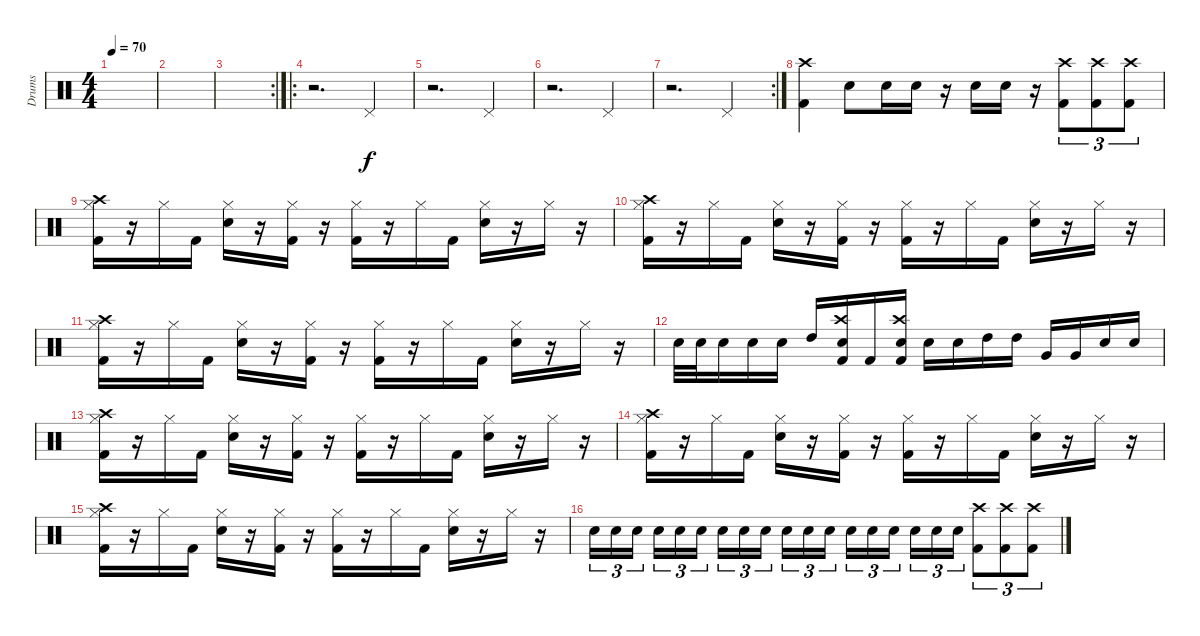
\track ("Drums" "Drums") {instrument percussion}
\staff {score}
\articulation defaults
\ts (4 4)
\tempo 70
\clef neutral
\ks c
|
|
\rc 2
|
\ro
r.2{d} "Pedal Hi-Hat (hit)".4 |
r.2{d} "Pedal Hi-Hat (hit)".4 |
r.2{d} "Pedal Hi-Hat (hit)".4 |
\rc 2
r.2{d} "Pedal Hi-Hat (hit)".4 |
("Kick (hit) 2" "Crash high (hit)").4 "Snare (hit) 2".8 "Snare (hit) 2".16 "Snare (hit) 2".16 r.16 "Snare (hit) 2".16 "Snare (hit) 2".16 r.16 ("Kick (hit) 2" "Crash high (hit)").8{tu (3 2)} ("Kick (hit) 2" "Crash high (hit)").8{tu (3 2)} ("Kick (hit) 2" "Crash high (hit)").8{tu (3 2)} |
("Hi-Hat (closed)" "Kick (hit) 2" "Crash high (hit)").16 r.16 "Hi-Hat (closed)".16 "Kick (hit) 2".16 ("Hi-Hat (closed)" "Snare (hit) 2").16 r.16 ("Hi-Hat (closed)" "Kick (hit) 2").16 r.16 ("Hi-Hat (closed)" "Kick (hit) 2").16 r.16 "Hi-Hat (closed)".16 "Kick (hit) 2".16 ("Hi-Hat (closed)" "Snare (hit) 2").16 r.16 "Hi-Hat (closed)".16 r.16 |
("Hi-Hat (closed)" "Kick (hit) 2" "Crash high (hit)").16 r.16 "Hi-Hat (closed)".16 "Kick (hit) 2".16 ("Hi-Hat (closed)" "Snare (hit) 2").16 r.16 ("Hi-Hat (closed)" "Kick (hit) 2").16 r.16 ("Hi-Hat (closed)" "Kick (hit) 2").16 r.16 "Hi-Hat (closed)".16 "Kick (hit) 2".16 ("Hi-Hat (closed)" "Snare (hit) 2").16 r.16 "Hi-Hat (closed)".16 r.16 |
("Hi-Hat (closed)" "Kick (hit) 2" "Crash high (hit)").16 r.16 "Hi-Hat (closed)".16 "Kick (hit) 2".16 ("Hi-Hat (closed)" "Snare (hit) 2").16 r.16 ("Hi-Hat (closed)" "Kick (hit) 2").16 r.16 ("Hi-Hat (closed)" "Kick (hit) 2").16 r.16 "Hi-Hat (closed)".16 "Kick (hit) 2".16 ("Hi-Hat (closed)" "Snare (hit) 2").16 r.16 "Hi-Hat (closed)".16 r.16 |
"Snare (hit) 2".32 "Snare (hit) 2".32 "Snare (hit) 2".16 "Snare (hit) 2".16 "Snare (hit) 2".16 "High Tom (hit)".16 ("Snare (hit) 2" "Crash high (hit)" "Kick (hit) 2").16 "Kick (hit) 2".16 ("Kick (hit) 2" "Crash high (hit)" "Snare (hit) 2").16 "Snare (hit) 2".16 "Snare (hit) 2".16 "High Tom (hit)".16 "High Tom (hit)".16 "Very Low Tom (hit)".16 "Very Low Tom (hit)".16 "Snare (hit) 2".16 "Snare (hit) 2".16 |
("Hi-Hat (closed)" "Kick (hit) 2" "Crash high (hit)").16 r.16 "Hi-Hat (closed)".16 "Kick (hit) 2".16 ("Hi-Hat (closed)" "Snare (hit) 2").16 r.16 ("Hi-Hat (closed)" "Kick (hit) 2").16 r.16 ("Hi-Hat (closed)" "Kick (hit) 2").16 r.16 "Hi-Hat (closed)".16 "Kick (hit) 2".16 ("Hi-Hat (closed)" "Snare (hit) 2").16 r.16 "Hi-Hat (closed)".16 r.16 |
("Hi-Hat (closed)" "Kick (hit) 2" "Crash high (hit)").16 r.16 "Hi-Hat (closed)".16 "Kick (hit) 2".16 ("Hi-Hat (closed)" "Snare (hit) 2").16 r.16 ("Hi-Hat (closed)" "Kick (hit) 2").16 r.16 ("Hi-Hat (closed)" "Kick (hit) 2").16 r.16 "Hi-Hat (closed)".16 "Kick (hit) 2".16 ("Hi-Hat (closed)" "Snare (hit) 2").16 r.16 "Hi-Hat (closed)".16 r.16 |
("Hi-Hat (closed)" "Kick (hit) 2" "Crash high (hit)").16 r.16 "Hi-Hat (closed)".16 "Kick (hit) 2".16 ("Hi-Hat (closed)" "Snare (hit) 2").16 r.16 ("Hi-Hat (closed)" "Kick (hit) 2").16 r.16 ("Hi-Hat (closed)" "Kick (hit) 2").16 r.16 "Hi-Hat (closed)".16 "Kick (hit) 2".16 ("Hi-Hat (closed)" "Snare (hit) 2").16 r.16 "Hi-Hat (closed)".16 r.16 |
"Snare (hit) 2".16{tu (3 2)} "Snare (hit) 2".16{tu (3 2)} "Snare (hit) 2".16{tu (3 2)} "Snare (hit) 2".16{tu (3 2)} "Snare (hit) 2".16{tu (3 2)} "Snare (hit) 2".16{tu (3 2)} "Snare (hit) 2".16{tu (3 2)} "Snare (hit) 2".16{tu (3 2)} "Snare (hit) 2".16{tu (3 2)} "Snare (hit) 2".16{tu (3 2)} "Snare (hit) 2".16{tu (3 2)} "Snare (hit) 2".16{tu (3 2)} "Snare (hit) 2".16{tu (3 2)} "Snare (hit) 2".16{tu (3 2)} "Snare (hit) 2".16{tu (3 2)} "Snare (hit) 2".16{tu (3 2)} "Snare (hit) 2".16{tu (3 2)} "Snare (hit) 2".16{tu (3 2)} ("Kick (hit) 2" "Crash high (hit)").8{tu (3 2)} ("Kick (hit) 2" "Crash high (hit)").8{tu (3 2)} ("Kick (hit) 2" "Crash high (hit)").8{tu (3 2)}
